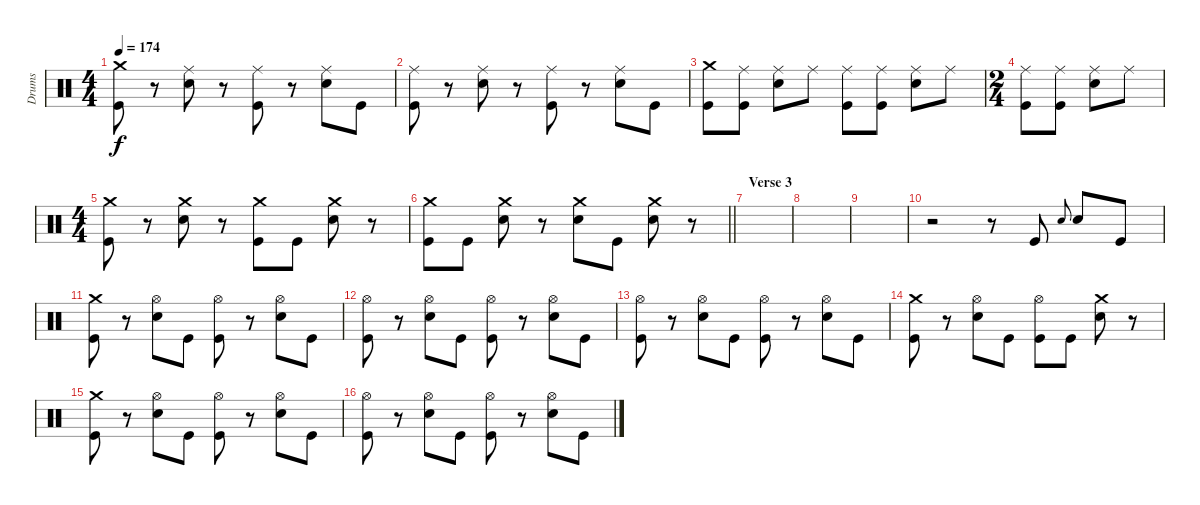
\track ("Drums" "Drums") {instrument percussion}
\staff {score}
\articulation defaults
\ts (4 4)
\tempo 174
\clef neutral
\ks c
("Crash medium (hit)" "Kick (hit)").8{dy f} r.8 ("Ride (middle)" "Snare (hit) 2").8 r.8 ("Ride (middle)" "Kick (hit)").8 r.8 ("Ride (middle)" "Snare (hit) 2").8 "Kick (hit)".8 |
("Ride (middle)" "Kick (hit)").8 r.8 ("Ride (middle)" "Snare (hit) 2").8 r.8 ("Ride (middle)" "Kick (hit)").8 r.8 ("Ride (middle)" "Snare (hit) 2").8 "Kick (hit)".8 |
("Crash medium (hit)" "Kick (hit)").8 ("Ride (middle)" "Kick (hit)").8 ("Ride (middle)" "Snare (hit) 2").8 "Ride (middle)".8 ("Ride (middle)" "Kick (hit)").8 ("Ride (middle)" "Kick (hit)").8 ("Ride (middle)" "Snare (hit) 2").8 "Ride (middle)".8 |
\ts (2 4)
("Ride (middle)" "Kick (hit)").8 ("Ride (middle)" "Kick (hit)").8 ("Ride (middle)" "Snare (hit) 2").8 "Ride (middle)".8 |
\ts (4 4)
("Crash medium (hit)" "Kick (hit)").8 r.8 ("Crash medium (hit)" "Snare (hit) 2").8 r.8 ("Crash medium (hit)" "Kick (hit)").8 "Kick (hit)".8 ("Crash medium (hit)" "Snare (hit) 2").8 r.8 |
\barLineRight lightlight
("Crash medium (hit)" "Kick (hit)").8 "Kick (hit)".8 ("Crash medium (hit)" "Snare (hit) 2").8 r.8 ("Crash medium (hit)" "Snare (hit) 2").8 "Kick (hit)".8 ("Crash medium (hit)" "Snare (hit) 2").8 r.8 |
\section ("" "Verse 3")
|
|
|
r.2 r.8 "Kick (hit)".8 "Snare (hit) 2".8{gr onbeat} "Snare (hit) 2".8 "Kick (hit)".8 |
("Crash medium (hit)" "Kick (hit)").8 r.8 ("Hi-Hat (open)" "Snare (hit) 2").8 "Kick (hit)".8 ("Hi-Hat (open)" "Kick (hit)").8 r.8 ("Hi-Hat (open)" "Snare (hit) 2").8 "Kick (hit)".8 |
("Hi-Hat (open)" "Kick (hit)").8 r.8 ("Hi-Hat (open)" "Snare (hit) 2").8 "Kick (hit)".8 ("Hi-Hat (open)" "Kick (hit)").8 r.8 ("Hi-Hat (open)" "Snare (hit) 2").8 "Kick (hit)".8 |
("Hi-Hat (open)" "Kick (hit)").8 r.8 ("Hi-Hat (open)" "Snare (hit) 2").8 "Kick (hit)".8 ("Hi-Hat (open)" "Kick (hit)").8 r.8 ("Hi-Hat (open)" "Snare (hit) 2").8 "Kick (hit)".8 |
("Crash medium (hit)" "Kick (hit)").8 r.8 ("Hi-Hat (open)" "Snare (hit) 2").8 "Kick (hit)".8 ("Hi-Hat (open)" "Kick (hit)").8 "Kick (hit)".8 ("Crash medium (hit)" "Snare (hit) 2").8 r.8 |
("Crash medium (hit)" "Kick (hit)").8 r.8 ("Hi-Hat (open)" "Snare (hit) 2").8 "Kick (hit)".8 ("Hi-Hat (open)" "Kick (hit)").8 r.8 ("Hi-Hat (open)" "Snare (hit) 2").8 "Kick (hit)".8 |
("Hi-Hat (open)" "Kick (hit)").8 r.8 ("Hi-Hat (open)" "Snare (hit) 2").8 "Kick (hit)".8 ("Hi-Hat (open)" "Kick (hit)").8 r.8 ("Hi-Hat (open)" "Snare (hit) 2").8 "Kick (hit)".8
